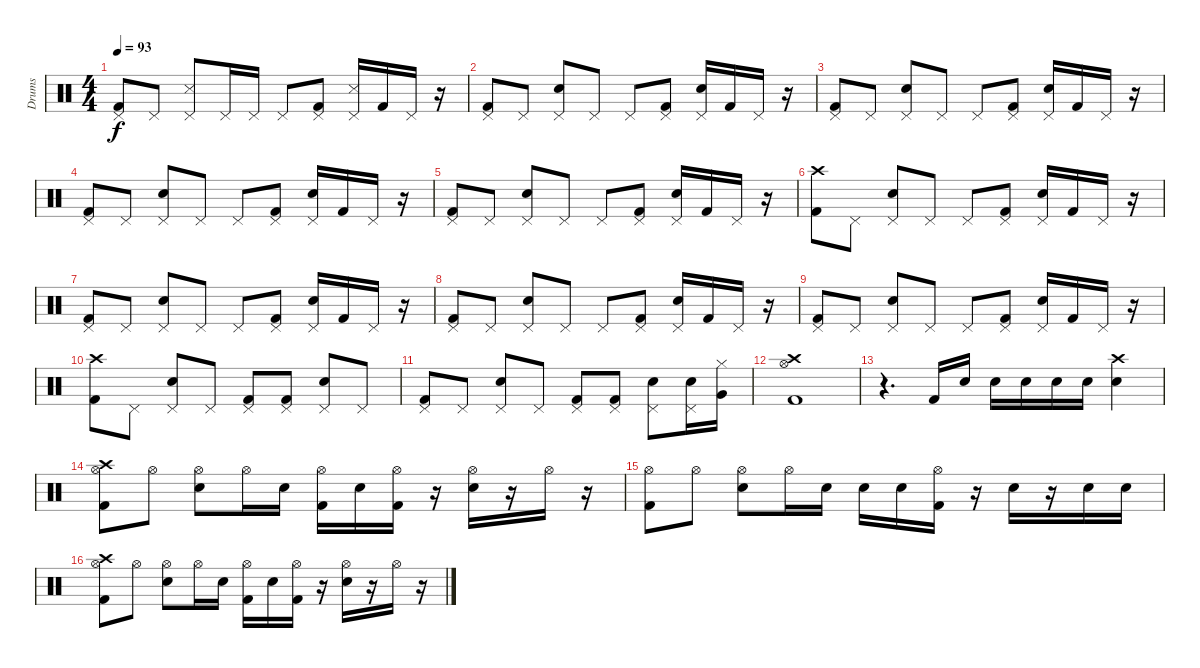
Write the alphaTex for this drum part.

\track ("Drums" "Drums") {instrument percussion}
\staff {score}
\articulation defaults
\ts (4 4)
\tempo 93
\clef neutral
\ks c
("Pedal Hi-Hat (hit)" "Kick (hit) 2").8{dy f} "Pedal Hi-Hat (hit)".8 ("Pedal Hi-Hat (hit)" "Snare (side stick) 3").8 "Pedal Hi-Hat (hit)".16 "Pedal Hi-Hat (hit)".16 "Pedal Hi-Hat (hit)".8 ("Pedal Hi-Hat (hit)" "Kick (hit) 2").8 ("Pedal Hi-Hat (hit)" "Snare (side stick) 3").16 "Kick (hit) 2".16 "Pedal Hi-Hat (hit)".16 r.16 |
("Pedal Hi-Hat (hit)" "Kick (hit) 2").8 "Pedal Hi-Hat (hit)".8 ("Pedal Hi-Hat (hit)" "Electric Snare (hit)").8 "Pedal Hi-Hat (hit)".8 "Pedal Hi-Hat (hit)".8 ("Pedal Hi-Hat (hit)" "Kick (hit) 2").8 ("Pedal Hi-Hat (hit)" "Electric Snare (hit)").16 "Kick (hit) 2".16 "Pedal Hi-Hat (hit)".16 r.16 |
("Pedal Hi-Hat (hit)" "Kick (hit) 2").8 "Pedal Hi-Hat (hit)".8 ("Pedal Hi-Hat (hit)" "Electric Snare (hit)").8 "Pedal Hi-Hat (hit)".8 "Pedal Hi-Hat (hit)".8 ("Pedal Hi-Hat (hit)" "Kick (hit) 2").8 ("Pedal Hi-Hat (hit)" "Electric Snare (hit)").16 "Kick (hit) 2".16 "Pedal Hi-Hat (hit)".16 r.16 |
("Pedal Hi-Hat (hit)" "Kick (hit) 2").8 "Pedal Hi-Hat (hit)".8 ("Pedal Hi-Hat (hit)" "Electric Snare (hit)").8 "Pedal Hi-Hat (hit)".8 "Pedal Hi-Hat (hit)".8 ("Pedal Hi-Hat (hit)" "Kick (hit) 2").8 ("Pedal Hi-Hat (hit)" "Electric Snare (hit)").16 "Kick (hit) 2".16 "Pedal Hi-Hat (hit)".16 r.16 |
("Pedal Hi-Hat (hit)" "Kick (hit) 2").8 "Pedal Hi-Hat (hit)".8 ("Pedal Hi-Hat (hit)" "Electric Snare (hit)").8 "Pedal Hi-Hat (hit)".8 "Pedal Hi-Hat (hit)".8 ("Pedal Hi-Hat (hit)" "Kick (hit) 2").8 ("Pedal Hi-Hat (hit)" "Electric Snare (hit)").16 "Kick (hit) 2".16 "Pedal Hi-Hat (hit)".16 r.16 |
("Crash high (hit)" "Kick (hit) 2").8 "Pedal Hi-Hat (hit)".8 ("Pedal Hi-Hat (hit)" "Electric Snare (hit)").8 "Pedal Hi-Hat (hit)".8 "Pedal Hi-Hat (hit)".8 ("Pedal Hi-Hat (hit)" "Kick (hit) 2").8 ("Pedal Hi-Hat (hit)" "Electric Snare (hit)").16 "Kick (hit) 2".16 "Pedal Hi-Hat (hit)".16 r.16 |
("Pedal Hi-Hat (hit)" "Kick (hit) 2").8 "Pedal Hi-Hat (hit)".8 ("Pedal Hi-Hat (hit)" "Electric Snare (hit)").8 "Pedal Hi-Hat (hit)".8 "Pedal Hi-Hat (hit)".8 ("Pedal Hi-Hat (hit)" "Kick (hit) 2").8 ("Pedal Hi-Hat (hit)" "Electric Snare (hit)").16 "Kick (hit) 2".16 "Pedal Hi-Hat (hit)".16 r.16 |
("Pedal Hi-Hat (hit)" "Kick (hit) 2").8 "Pedal Hi-Hat (hit)".8 ("Pedal Hi-Hat (hit)" "Electric Snare (hit)").8 "Pedal Hi-Hat (hit)".8 "Pedal Hi-Hat (hit)".8 ("Pedal Hi-Hat (hit)" "Kick (hit) 2").8 ("Pedal Hi-Hat (hit)" "Electric Snare (hit)").16 "Kick (hit) 2".16 "Pedal Hi-Hat (hit)".16 r.16 |
("Pedal Hi-Hat (hit)" "Kick (hit) 2").8 "Pedal Hi-Hat (hit)".8 ("Pedal Hi-Hat (hit)" "Electric Snare (hit)").8 "Pedal Hi-Hat (hit)".8 "Pedal Hi-Hat (hit)".8 ("Pedal Hi-Hat (hit)" "Kick (hit) 2").8 ("Pedal Hi-Hat (hit)" "Electric Snare (hit)").16 "Kick (hit) 2".16 "Pedal Hi-Hat (hit)".16 r.16 |
("Crash high (hit)" "Kick (hit) 2").8 "Pedal Hi-Hat (hit)".8 ("Pedal Hi-Hat (hit)" "Electric Snare (hit)").8 "Pedal Hi-Hat (hit)".8 ("Pedal Hi-Hat (hit)" "Kick (hit) 2").8 ("Pedal Hi-Hat (hit)" "Kick (hit) 2").8 ("Pedal Hi-Hat (hit)" "Electric Snare (hit)").8 "Pedal Hi-Hat (hit)".8 |
("Pedal Hi-Hat (hit)" "Kick (hit) 2").8 "Pedal Hi-Hat (hit)".8 ("Pedal Hi-Hat (hit)" "Electric Snare (hit)").8 "Pedal Hi-Hat (hit)".8 ("Pedal Hi-Hat (hit)" "Kick (hit) 2").8 ("Pedal Hi-Hat (hit)" "Kick (hit) 2").8 ("Pedal Hi-Hat (hit)" "Electric Snare (hit)").8 ("Pedal Hi-Hat (hit)" "Electric Snare (hit)").16 ("Hi-Hat (closed)" "Very Low Tom (hit)").16 |
("Crash high (hit)" "Hi-Hat (open)" "Kick (hit) 2").1 |
r.4{d} "Kick (hit) 2".16 "Electric Snare (hit)".16 "Electric Snare (hit)".16 "Electric Snare (hit)".16 "Electric Snare (hit)".16 "Electric Snare (hit)".16 ("Crash high (hit)" "Electric Snare (hit)").4 |
("Crash high (hit)" "Hi-Hat (open)" "Kick (hit) 2").8 "Hi-Hat (open)".8 ("Hi-Hat (open)" "Electric Snare (hit)").8 "Hi-Hat (open)".16 "Electric Snare (hit)".16 ("Hi-Hat (open)" "Kick (hit) 2").16 "Electric Snare (hit)".16 ("Hi-Hat (open)" "Kick (hit) 2").16 r.16 ("Hi-Hat (open)" "Electric Snare (hit)").16 r.16 "Hi-Hat (open)".16 r.16 |
("Hi-Hat (open)" "Kick (hit) 2").8 "Hi-Hat (open)".8 ("Hi-Hat (open)" "Electric Snare (hit)").8 "Hi-Hat (open)".16 "Electric Snare (hit)".16 "Electric Snare (hit)".16 "Electric Snare (hit)".16 ("Hi-Hat (open)" "Kick (hit) 2").16 r.16 "Electric Snare (hit)".16 r.16 "Electric Snare (hit)".16 "Electric Snare (hit)".16 |
("Crash high (hit)" "Hi-Hat (open)" "Kick (hit) 2").8 "Hi-Hat (open)".8 ("Hi-Hat (open)" "Electric Snare (hit)").8 "Hi-Hat (open)".16 "Electric Snare (hit)".16 ("Hi-Hat (open)" "Kick (hit) 2").16 "Electric Snare (hit)".16 ("Hi-Hat (open)" "Kick (hit) 2").16 r.16 ("Hi-Hat (open)" "Electric Snare (hit)").16 r.16 "Hi-Hat (open)".16 r.16
